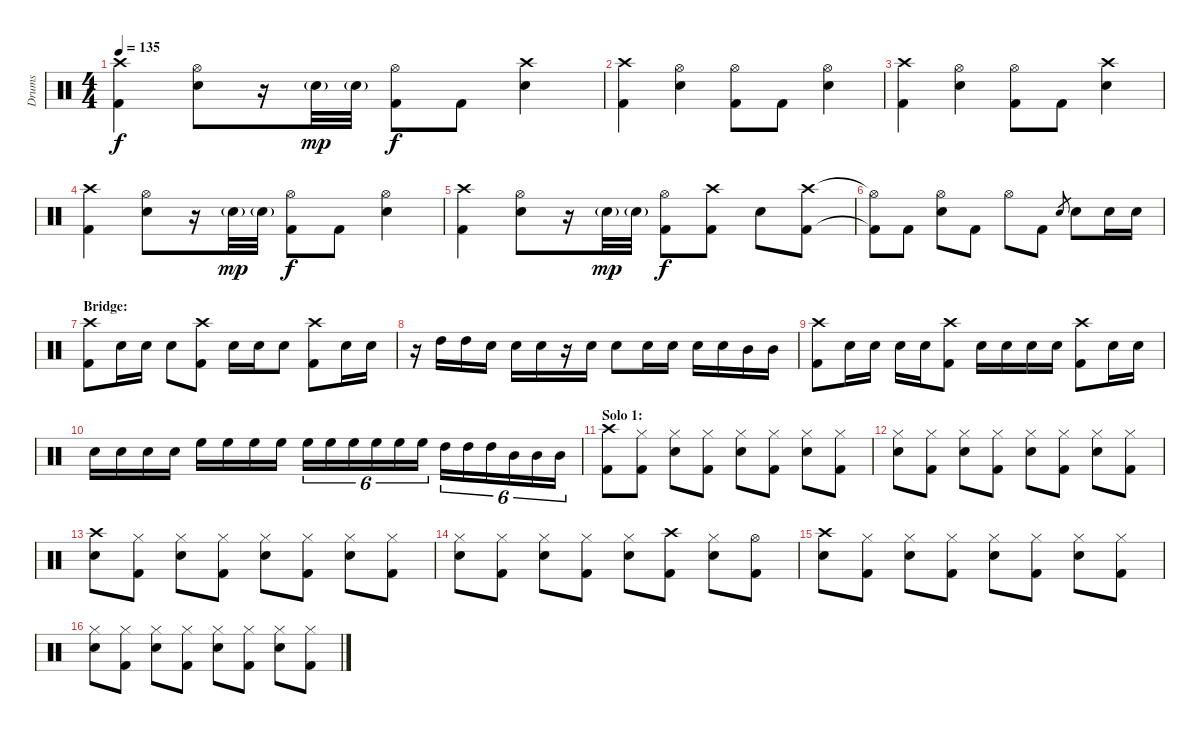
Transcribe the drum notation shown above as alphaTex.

\track ("Drums" "Drums") {instrument percussion}
\staff {score}
\articulation defaults
\ts (4 4)
\tempo 135
\clef neutral
\ks c
("Crash high (hit)" "Kick (hit) 2").4{dy f} ("Hi-Hat (open)" "Snare (hit) 2").8 r.16 "Snare (hit) 2"{g}.32{dy mp} "Snare (hit) 2"{g}.32 ("Hi-Hat (open)" "Kick (hit) 2").8{dy f} "Kick (hit) 2".8 ("Crash high (hit)" "Snare (hit) 2").4 |
("Crash high (hit)" "Kick (hit) 2").4 ("Hi-Hat (open)" "Snare (hit) 2").4 ("Hi-Hat (open)" "Kick (hit) 2").8 "Kick (hit) 2".8 ("Hi-Hat (open)" "Snare (hit) 2").4 |
("Crash high (hit)" "Kick (hit) 2").4 ("Hi-Hat (open)" "Snare (hit) 2").4 ("Hi-Hat (open)" "Kick (hit) 2").8 "Kick (hit) 2".8 ("Crash high (hit)" "Snare (hit) 2").4 |
("Crash high (hit)" "Kick (hit) 2").4 ("Hi-Hat (open)" "Snare (hit) 2").8 r.16 "Snare (hit) 2"{g}.32{dy mp} "Snare (hit) 2"{g}.32 ("Hi-Hat (open)" "Kick (hit) 2").8{dy f} "Kick (hit) 2".8 ("Hi-Hat (open)" "Snare (hit) 2").4 |
("Crash high (hit)" "Kick (hit) 2").4 ("Hi-Hat (open)" "Snare (hit) 2").8 r.16 "Snare (hit) 2"{g}.32{dy mp} "Snare (hit) 2"{g}.32 ("Hi-Hat (open)" "Kick (hit) 2").8{dy f} ("Crash high (hit)" "Kick (hit) 2").8 "Snare (hit) 2".8 ("Crash high (hit)" "Kick (hit) 2").8 |
("Hi-Hat (open)"{t} "Kick (hit) 2"{t}).8 "Kick (hit) 2".8 ("Hi-Hat (open)" "Snare (hit) 2").8 "Kick (hit) 2".8 "Hi-Hat (open)".8 "Kick (hit) 2".8 "Snare (hit) 2".8{gr} "Snare (hit) 2".8 "Snare (hit) 2".16 "Snare (hit) 2".16 |
\section ("" "Bridge:")
("Crash high (hit)" "Kick (hit) 2").8 "Snare (hit) 2".16 "Snare (hit) 2".16 "Snare (hit) 2".8 ("Crash high (hit)" "Kick (hit) 2").8 "Snare (hit) 2".16 "Snare (hit) 2".16 "Snare (hit) 2".8 ("Crash high (hit)" "Kick (hit) 2").8 "Snare (hit) 2".16 "Snare (hit) 2".16 |
r.16 "High Tom (hit)".16 "High Tom (hit)".16 "Snare (hit) 2".16 "Snare (hit) 2".16 "Snare (hit) 2".16 r.16 "Snare (hit) 2".16 "Snare (hit) 2".8 "Snare (hit) 2".16 "Snare (hit) 2".16 "Snare (hit) 2".16 "Snare (hit) 2".16 "Mid Tom (hit)".16 "Mid Tom (hit)".16 |
("Crash high (hit)" "Kick (hit) 2").8 "Snare (hit) 2".16 "Snare (hit) 2".16 "Snare (hit) 2".16 "Snare (hit) 2".16 ("Crash high (hit)" "Kick (hit) 2").8 "Snare (hit) 2".16 "Snare (hit) 2".16 "Snare (hit) 2".16 "Snare (hit) 2".16 ("Crash high (hit)" "Kick (hit) 2").8 "Snare (hit) 2".16 "Snare (hit) 2".16 |
"Snare (hit) 2".16 "Snare (hit) 2".16 "Snare (hit) 2".16 "Snare (hit) 2".16 "High Floor Tom (hit)".16 "High Floor Tom (hit)".16 "High Floor Tom (hit)".16 "High Floor Tom (hit)".16 "High Floor Tom (hit)".16{tu (6 4)} "High Floor Tom (hit)".16{tu (6 4)} "High Floor Tom (hit)".16{tu (6 4)} "High Floor Tom (hit)".16{tu (6 4)} "High Floor Tom (hit)".16{tu (6 4)} "High Floor Tom (hit)".16{tu (6 4)} "High Tom (hit)".16{tu (6 4)} "High Tom (hit)".16{tu (6 4)} "High Tom (hit)".16{tu (6 4)} "Mid Tom (hit)".16{tu (6 4)} "Mid Tom (hit)".16{tu (6 4)} "Mid Tom (hit)".16{tu (6 4)} |
\section ("" "Solo 1:")
("Crash high (hit)" "Kick (hit) 2").8 ("Hi-Hat (closed)" "Kick (hit) 2").8 ("Hi-Hat (closed)" "Snare (hit) 2").8 ("Hi-Hat (closed)" "Kick (hit) 2").8 ("Hi-Hat (closed)" "Snare (hit) 2").8 ("Hi-Hat (closed)" "Kick (hit) 2").8 ("Hi-Hat (closed)" "Snare (hit) 2").8 ("Hi-Hat (closed)" "Kick (hit) 2").8 |
("Hi-Hat (closed)" "Snare (hit) 2").8 ("Hi-Hat (closed)" "Kick (hit) 2").8 ("Hi-Hat (closed)" "Snare (hit) 2").8 ("Hi-Hat (closed)" "Kick (hit) 2").8 ("Hi-Hat (closed)" "Snare (hit) 2").8 ("Hi-Hat (closed)" "Kick (hit) 2").8 ("Hi-Hat (closed)" "Snare (hit) 2").8 ("Hi-Hat (closed)" "Kick (hit) 2").8 |
("Crash high (hit)" "Snare (hit) 2").8 ("Hi-Hat (closed)" "Kick (hit) 2").8 ("Hi-Hat (closed)" "Snare (hit) 2").8 ("Hi-Hat (closed)" "Kick (hit) 2").8 ("Hi-Hat (closed)" "Snare (hit) 2").8 ("Hi-Hat (closed)" "Kick (hit) 2").8 ("Hi-Hat (closed)" "Snare (hit) 2").8 ("Hi-Hat (closed)" "Kick (hit) 2").8 |
("Hi-Hat (closed)" "Snare (hit) 2").8 ("Hi-Hat (closed)" "Kick (hit) 2").8 ("Hi-Hat (closed)" "Snare (hit) 2").8 ("Hi-Hat (closed)" "Kick (hit) 2").8 ("Hi-Hat (closed)" "Snare (hit) 2").8 ("Crash high (hit)" "Kick (hit) 2").8 ("Hi-Hat (closed)" "Snare (hit) 2").8 ("Hi-Hat (open)" "Kick (hit) 2").8 |
("Crash high (hit)" "Snare (hit) 2").8 ("Hi-Hat (closed)" "Kick (hit) 2").8 ("Hi-Hat (closed)" "Snare (hit) 2").8 ("Hi-Hat (closed)" "Kick (hit) 2").8 ("Hi-Hat (closed)" "Snare (hit) 2").8 ("Hi-Hat (closed)" "Kick (hit) 2").8 ("Hi-Hat (closed)" "Snare (hit) 2").8 ("Hi-Hat (closed)" "Kick (hit) 2").8 |
("Hi-Hat (closed)" "Snare (hit) 2").8 ("Hi-Hat (closed)" "Kick (hit) 2").8 ("Hi-Hat (closed)" "Snare (hit) 2").8 ("Hi-Hat (closed)" "Kick (hit) 2").8 ("Hi-Hat (closed)" "Snare (hit) 2").8 ("Hi-Hat (closed)" "Kick (hit) 2").8 ("Hi-Hat (closed)" "Snare (hit) 2").8 ("Hi-Hat (closed)" "Kick (hit) 2").8
